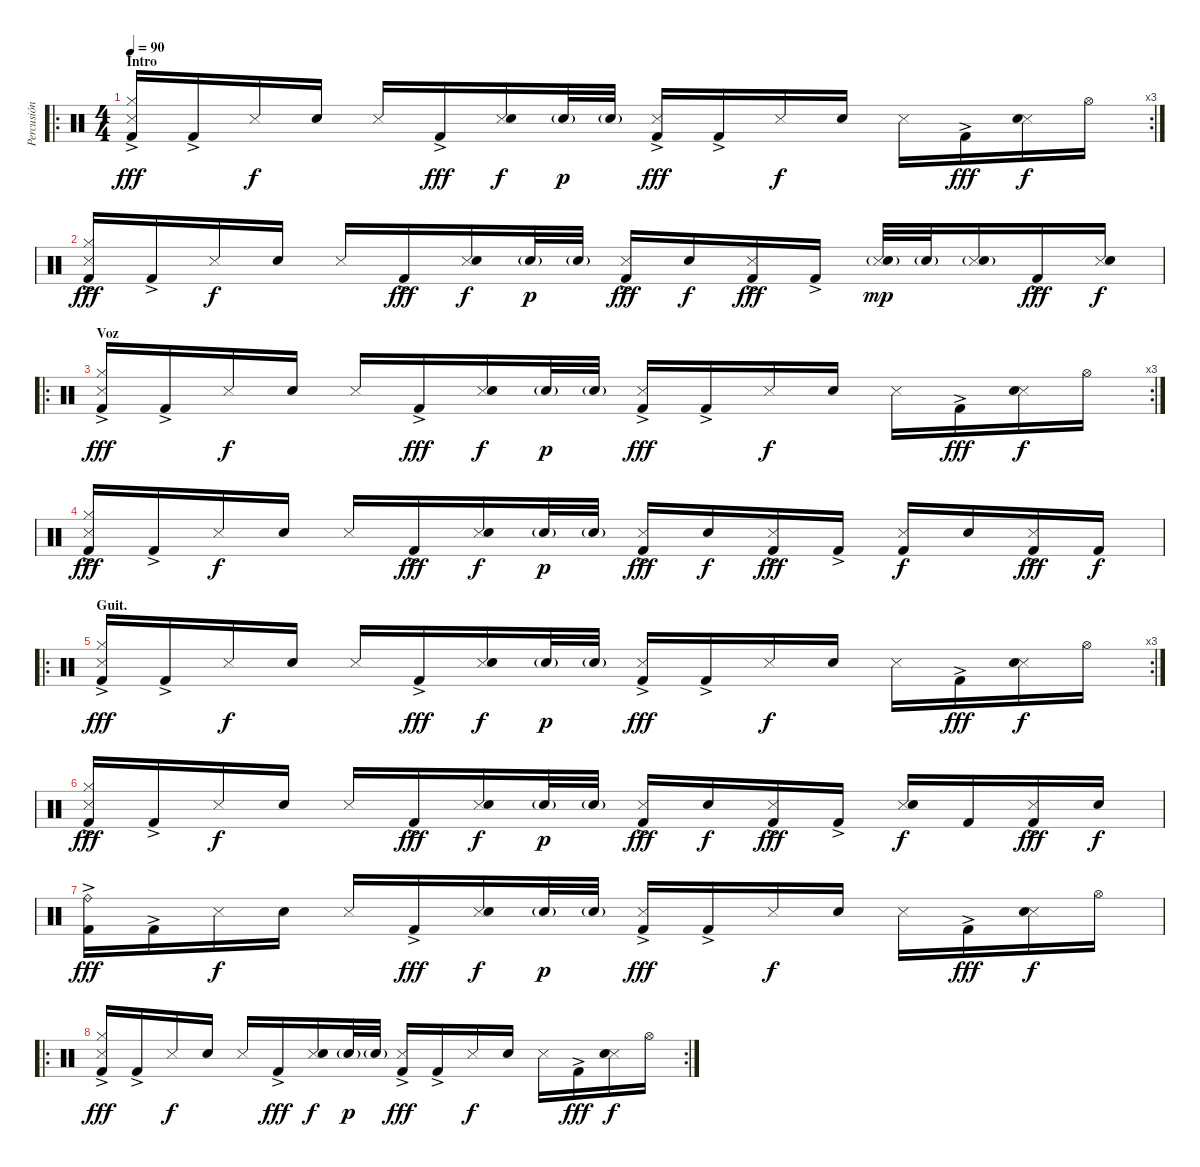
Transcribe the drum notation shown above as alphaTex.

\track ("Percusión" "Percusión") {instrument percussion}
\staff {score}
\articulation defaults
\ro
\rc 3
\ts (4 4)
\section ("" "Intro")
\tempo 90
\clef neutral
\ks c
("Snare (side stick) 3" "Hi-Hat (closed)" "Kick (hit) 2"{ac}).16{dy fff} "Kick (hit) 2"{ac}.16 "Snare (side stick) 3".16{dy f} "Electric Snare (hit)".16 "Snare (side stick) 3".16 "Kick (hit) 2"{ac}.16{dy fff} ("Snare (side stick) 3" "Electric Snare (hit)").16{dy f} "Electric Snare (hit)"{g}.32{dy p} "Electric Snare (hit)"{g}.32 ("Snare (side stick) 3" "Kick (hit) 2"{ac}).16{dy fff} "Kick (hit) 2"{ac}.16 "Snare (side stick) 3".16{dy f} "Electric Snare (hit)".16 "Snare (side stick) 3".16 "Kick (hit) 2"{ac}.16{dy fff} ("Snare (side stick) 3" "Electric Snare (hit)").16{dy f} "Hi-Hat (open)".16 |
("Snare (side stick) 3" "Hi-Hat (closed)" "Kick (hit) 2"{ac}).16{dy fff} "Kick (hit) 2"{ac}.16 "Snare (side stick) 3".16{dy f} "Electric Snare (hit)".16 "Snare (side stick) 3".16 "Kick (hit) 2"{ac}.16{dy fff} ("Snare (side stick) 3" "Electric Snare (hit)").16{dy f} "Electric Snare (hit)"{g}.32{dy p} "Electric Snare (hit)"{g}.32 ("Snare (side stick) 3" "Kick (hit) 2"{ac}).16{dy fff} "Electric Snare (hit)".16{dy f} ("Snare (side stick) 3" "Kick (hit) 2"{ac}).16{dy fff} "Kick (hit) 2"{ac}.16 ("Snare (side stick) 3" "Electric Snare (hit)"{g}).32{dy mp} "Electric Snare (hit)"{g}.32 ("Snare (side stick) 3" "Electric Snare (hit)"{g}).16 "Kick (hit) 2"{ac}.16{dy fff} ("Snare (side stick) 3" "Electric Snare (hit)").16{dy f} |
\ro
\rc 3
\section ("" "Voz")
("Snare (side stick) 3" "Hi-Hat (closed)" "Kick (hit) 2"{ac}).16{dy fff} "Kick (hit) 2"{ac}.16 "Snare (side stick) 3".16{dy f} "Electric Snare (hit)".16 "Snare (side stick) 3".16 "Kick (hit) 2"{ac}.16{dy fff} ("Snare (side stick) 3" "Electric Snare (hit)").16{dy f} "Electric Snare (hit)"{g}.32{dy p} "Electric Snare (hit)"{g}.32 ("Snare (side stick) 3" "Kick (hit) 2"{ac}).16{dy fff} "Kick (hit) 2"{ac}.16 "Snare (side stick) 3".16{dy f} "Electric Snare (hit)".16 "Snare (side stick) 3".16 "Kick (hit) 2"{ac}.16{dy fff} ("Snare (side stick) 3" "Electric Snare (hit)").16{dy f} "Hi-Hat (open)".16 |
("Snare (side stick) 3" "Hi-Hat (closed)" "Kick (hit) 2"{ac}).16{dy fff} "Kick (hit) 2"{ac}.16 "Snare (side stick) 3".16{dy f} "Electric Snare (hit)".16 "Snare (side stick) 3".16 "Kick (hit) 2"{ac}.16{dy fff} ("Snare (side stick) 3" "Electric Snare (hit)").16{dy f} "Electric Snare (hit)"{g}.32{dy p} "Electric Snare (hit)"{g}.32 ("Snare (side stick) 3" "Kick (hit) 2"{ac}).16{dy fff} "Electric Snare (hit)".16{dy f} ("Snare (side stick) 3" "Kick (hit) 2"{ac}).16{dy fff} "Kick (hit) 2"{ac}.16 ("Snare (side stick) 3" "Kick (hit) 2").16{dy f} "Electric Snare (hit)".16 ("Snare (side stick) 3" "Kick (hit) 2"{ac}).16{dy fff} "Kick (hit) 2".16{dy f} |
\ro
\rc 3
\section ("" "Guit.")
("Snare (side stick) 3" "Hi-Hat (closed)" "Kick (hit) 2"{ac}).16{dy fff} "Kick (hit) 2"{ac}.16 "Snare (side stick) 3".16{dy f} "Electric Snare (hit)".16 "Snare (side stick) 3".16 "Kick (hit) 2"{ac}.16{dy fff} ("Snare (side stick) 3" "Electric Snare (hit)").16{dy f} "Electric Snare (hit)"{g}.32{dy p} "Electric Snare (hit)"{g}.32 ("Snare (side stick) 3" "Kick (hit) 2"{ac}).16{dy fff} "Kick (hit) 2"{ac}.16 "Snare (side stick) 3".16{dy f} "Electric Snare (hit)".16 "Snare (side stick) 3".16 "Kick (hit) 2"{ac}.16{dy fff} ("Snare (side stick) 3" "Electric Snare (hit)").16{dy f} "Hi-Hat (open)".16 |
("Snare (side stick) 3" "Hi-Hat (closed)" "Kick (hit) 2"{ac}).16{dy fff} "Kick (hit) 2"{ac}.16 "Snare (side stick) 3".16{dy f} "Electric Snare (hit)".16 "Snare (side stick) 3".16 "Kick (hit) 2"{ac}.16{dy fff} ("Snare (side stick) 3" "Electric Snare (hit)").16{dy f} "Electric Snare (hit)"{g}.32{dy p} "Electric Snare (hit)"{g}.32 ("Snare (side stick) 3" "Kick (hit) 2"{ac}).16{dy fff} "Electric Snare (hit)".16{dy f} ("Snare (side stick) 3" "Kick (hit) 2"{ac}).16{dy fff} "Kick (hit) 2"{ac}.16 ("Snare (side stick) 3" "Electric Snare (hit)").16{dy f} "Kick (hit) 2".16 ("Snare (side stick) 3" "Kick (hit) 2"{ac}).16{dy fff} "Electric Snare (hit)".16{dy f} |
("Ride (bell)" "Kick (hit) 2"{ac}).16{dy fff} "Kick (hit) 2"{ac}.16 "Snare (side stick) 3".16{dy f} "Electric Snare (hit)".16 "Snare (side stick) 3".16 "Kick (hit) 2"{ac}.16{dy fff} ("Snare (side stick) 3" "Electric Snare (hit)").16{dy f} "Electric Snare (hit)"{g}.32{dy p} "Electric Snare (hit)"{g}.32 ("Snare (side stick) 3" "Kick (hit) 2"{ac}).16{dy fff} "Kick (hit) 2"{ac}.16 "Snare (side stick) 3".16{dy f} "Electric Snare (hit)".16 "Snare (side stick) 3".16 "Kick (hit) 2"{ac}.16{dy fff} ("Snare (side stick) 3" "Electric Snare (hit)").16{dy f} "Hi-Hat (open)".16 |
\ro
\rc 2
("Snare (side stick) 3" "Hi-Hat (closed)" "Kick (hit) 2"{ac}).16{dy fff} "Kick (hit) 2"{ac}.16 "Snare (side stick) 3".16{dy f} "Electric Snare (hit)".16 "Snare (side stick) 3".16 "Kick (hit) 2"{ac}.16{dy fff} ("Snare (side stick) 3" "Electric Snare (hit)").16{dy f} "Electric Snare (hit)"{g}.32{dy p} "Electric Snare (hit)"{g}.32 ("Snare (side stick) 3" "Kick (hit) 2"{ac}).16{dy fff} "Kick (hit) 2"{ac}.16 "Snare (side stick) 3".16{dy f} "Electric Snare (hit)".16 "Snare (side stick) 3".16 "Kick (hit) 2"{ac}.16{dy fff} ("Snare (side stick) 3" "Electric Snare (hit)").16{dy f} "Hi-Hat (open)".16
